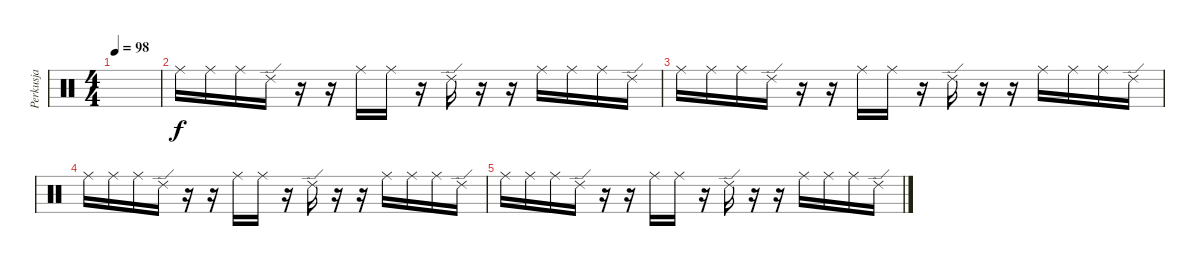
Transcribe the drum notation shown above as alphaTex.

\track ("Perkusja" "Perkusja") {instrument percussion}
\staff {score}
\articulation defaults
\ts (4 4)
\tempo 98
\clef neutral
\ks c
|
"Ride (middle)".16{dy f} "Ride (middle)".16 "Ride (middle)".16 "Ride (edge) 2".16 r.16 r.16 "Ride (middle)".16 "Ride (middle)".16 r.16 "Ride (edge) 2".16 r.16 r.16 "Ride (middle)".16 "Ride (middle)".16 "Ride (middle)".16 "Ride (edge) 2".16 |
"Ride (middle)".16 "Ride (middle)".16 "Ride (middle)".16 "Ride (edge) 2".16 r.16 r.16 "Ride (middle)".16 "Ride (middle)".16 r.16 "Ride (edge) 2".16 r.16 r.16 "Ride (middle)".16 "Ride (middle)".16 "Ride (middle)".16 "Ride (edge) 2".16 |
"Ride (middle)".16 "Ride (middle)".16 "Ride (middle)".16 "Ride (edge) 2".16 r.16 r.16 "Ride (middle)".16 "Ride (middle)".16 r.16 "Ride (edge) 2".16 r.16 r.16 "Ride (middle)".16 "Ride (middle)".16 "Ride (middle)".16 "Ride (edge) 2".16 |
"Ride (middle)".16 "Ride (middle)".16 "Ride (middle)".16 "Ride (edge) 2".16 r.16 r.16 "Ride (middle)".16 "Ride (middle)".16 r.16 "Ride (edge) 2".16 r.16 r.16 "Ride (middle)".16 "Ride (middle)".16 "Ride (middle)".16 "Ride (edge) 2".16
